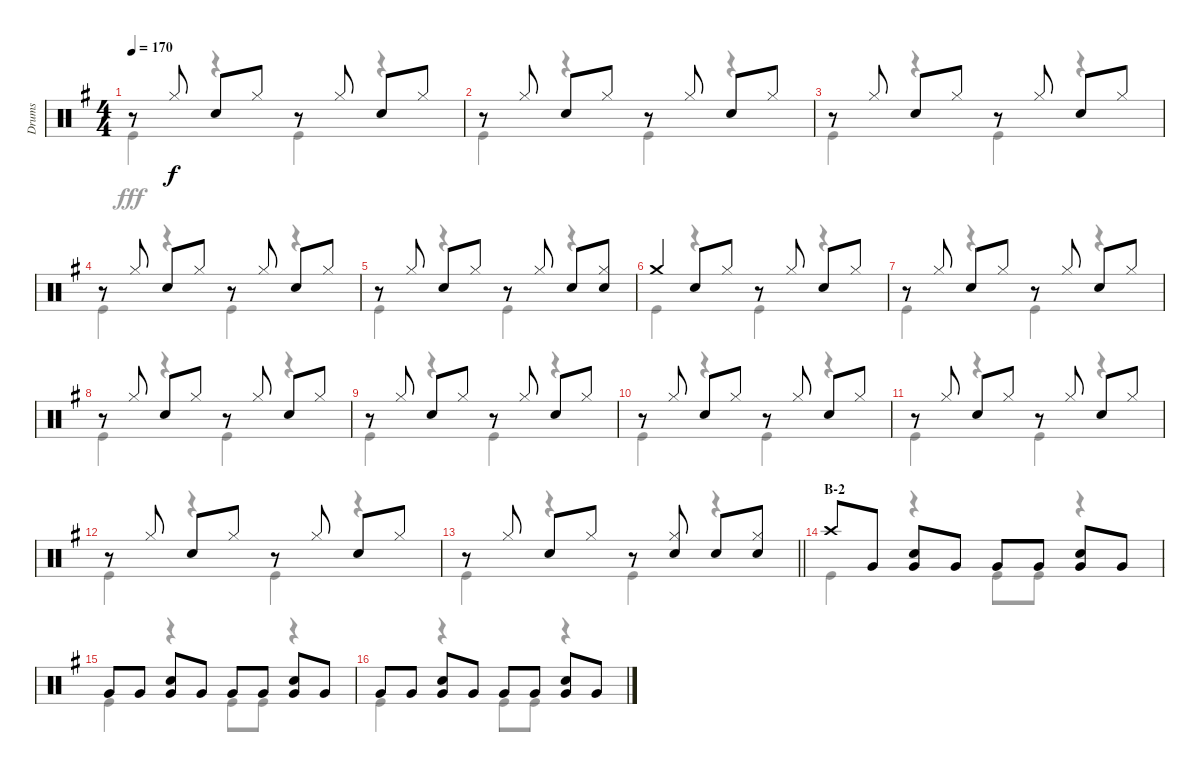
\track ("Drums" "Drums") {instrument percussion}
\staff {score}
\articulation defaults
\voice
\ts (4 4)
\tempo 170
\clef neutral
\ks g
r.8{dy f} "Hi-Hat (closed)".8 "Snare (hit) 2".8 "Hi-Hat (closed)".8 r.8 "Hi-Hat (closed)".8 "Snare (hit) 2".8 "Hi-Hat (closed)".8 |
r.8 "Hi-Hat (closed)".8 "Snare (hit) 2".8 "Hi-Hat (closed)".8 r.8 "Hi-Hat (closed)".8 "Snare (hit) 2".8 "Hi-Hat (closed)".8 |
r.8 "Hi-Hat (closed)".8 "Snare (hit) 2".8 "Hi-Hat (closed)".8 r.8 "Hi-Hat (closed)".8 "Snare (hit) 2".8 "Hi-Hat (closed)".8 |
r.8 "Hi-Hat (closed)".8 "Snare (hit) 2".8 "Hi-Hat (closed)".8 r.8 "Hi-Hat (closed)".8 "Snare (hit) 2".8 "Hi-Hat (closed)".8 |
r.8 "Hi-Hat (closed)".8 "Snare (hit) 2".8 "Hi-Hat (closed)".8 r.8 "Hi-Hat (closed)".8 "Snare (hit) 2".8 ("Hi-Hat (closed)" "Snare (hit) 2").8 |
"Crash medium (hit)".4 "Snare (hit) 2".8 "Hi-Hat (closed)".8 r.8 "Hi-Hat (closed)".8 "Snare (hit) 2".8 "Hi-Hat (closed)".8 |
r.8 "Hi-Hat (closed)".8 "Snare (hit) 2".8 "Hi-Hat (closed)".8 r.8 "Hi-Hat (closed)".8 "Snare (hit) 2".8 "Hi-Hat (closed)".8 |
r.8 "Hi-Hat (closed)".8 "Snare (hit) 2".8 "Hi-Hat (closed)".8 r.8 "Hi-Hat (closed)".8 "Snare (hit) 2".8 "Hi-Hat (closed)".8 |
r.8 "Hi-Hat (closed)".8 "Snare (hit) 2".8 "Hi-Hat (closed)".8 r.8 "Hi-Hat (closed)".8 "Snare (hit) 2".8 "Hi-Hat (closed)".8 |
r.8 "Hi-Hat (closed)".8 "Snare (hit) 2".8 "Hi-Hat (closed)".8 r.8 "Hi-Hat (closed)".8 "Snare (hit) 2".8 "Hi-Hat (closed)".8 |
r.8 "Hi-Hat (closed)".8 "Snare (hit) 2".8 "Hi-Hat (closed)".8 r.8 "Hi-Hat (closed)".8 "Snare (hit) 2".8 "Hi-Hat (closed)".8 |
r.8 "Hi-Hat (closed)".8 "Snare (hit) 2".8 "Hi-Hat (closed)".8 r.8 "Hi-Hat (closed)".8 "Snare (hit) 2".8 "Hi-Hat (closed)".8 |
\barLineRight lightlight
r.8 "Hi-Hat (closed)".8 "Snare (hit) 2".8 "Hi-Hat (closed)".8 r.8 ("Hi-Hat (closed)" "Snare (hit) 2").8 "Snare (hit) 2".8 ("Hi-Hat (closed)" "Snare (hit) 2").8 |
\section ("" "B-2")
"Crash high (hit)".8 "Very Low Tom (hit)".8 ("Snare (hit) 2" "Very Low Tom (hit)").8 "Very Low Tom (hit)".8 "Very Low Tom (hit)".8 "Very Low Tom (hit)".8 ("Snare (hit) 2" "Very Low Tom (hit)").8 "Very Low Tom (hit)".8 |
"Very Low Tom (hit)".8 "Very Low Tom (hit)".8 ("Snare (hit) 2" "Very Low Tom (hit)").8 "Very Low Tom (hit)".8 "Very Low Tom (hit)".8 "Very Low Tom (hit)".8 ("Snare (hit) 2" "Very Low Tom (hit)").8 "Very Low Tom (hit)".8 |
"Very Low Tom (hit)".8 "Very Low Tom (hit)".8 ("Snare (hit) 2" "Very Low Tom (hit)").8 "Very Low Tom (hit)".8 "Very Low Tom (hit)".8 "Very Low Tom (hit)".8 ("Snare (hit) 2" "Very Low Tom (hit)").8 "Very Low Tom (hit)".8
\voice
\clef neutral
\ottava regular
\simile none
\ks g "Kick (hit)".4{dy fff}
r.4 "Kick (hit)".4 r.4 |
"Kick (hit)".4 r.4 "Kick (hit)".4 r.4 |
"Kick (hit)".4 r.4 "Kick (hit)".4 r.4 |
"Kick (hit)".4 r.4 "Kick (hit)".4 r.4 |
"Kick (hit)".4 r.4 "Kick (hit)".4 r.4 |
"Kick (hit)".4 r.4 "Kick (hit)".4 r.4 |
"Kick (hit)".4 r.4 "Kick (hit)".4 r.4 |
"Kick (hit)".4 r.4 "Kick (hit)".4 r.4 |
"Kick (hit)".4 r.4 "Kick (hit)".4 r.4 |
"Kick (hit)".4 r.4 "Kick (hit)".4 r.4 |
"Kick (hit)".4 r.4 "Kick (hit)".4 r.4 |
"Kick (hit)".4 r.4 "Kick (hit)".4 r.4 |
\barLineRight lightlight "Kick (hit)".4
r.4 "Kick (hit)".4 r.4 |
"Kick (hit)".4 r.4 "Kick (hit)".8 "Kick (hit)".8 r.4 |
"Kick (hit)".4 r.4 "Kick (hit)".8 "Kick (hit)".8 r.4 |
"Kick (hit)".4 r.4 "Kick (hit)".8 "Kick (hit)".8 r.4
